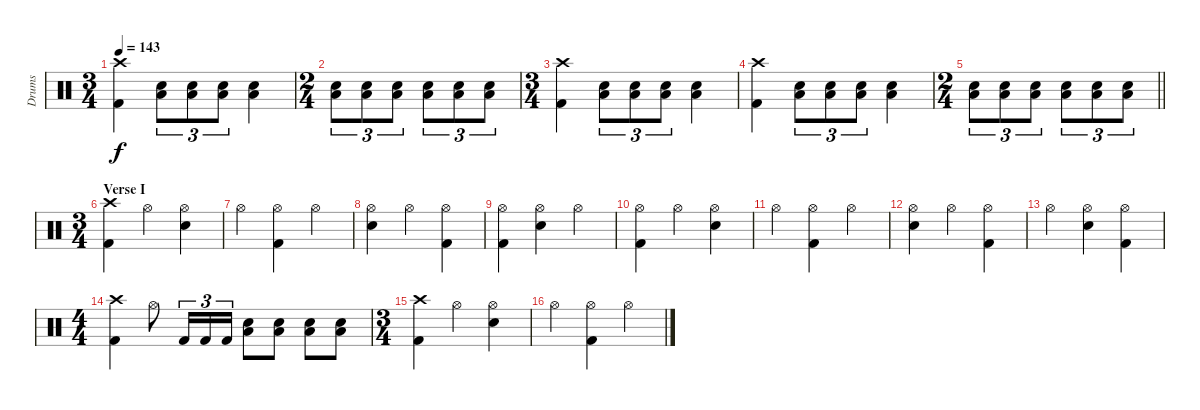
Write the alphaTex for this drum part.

\track ("Drums" "Drums") {instrument percussion}
\staff {score}
\articulation defaults
\ts (3 4)
\tempo 143
\clef neutral
\ks c
("Crash high (hit)" "Kick (hit) 2").4{dy f} ("Electric Snare (hit)" "Low Floor Tom (hit)").8{tu (3 2)} ("Electric Snare (hit)" "Low Floor Tom (hit)").8{tu (3 2)} ("Electric Snare (hit)" "Low Floor Tom (hit)").8{tu (3 2)} ("Electric Snare (hit)" "Low Floor Tom (hit)").4 |
\ts (2 4)
("Electric Snare (hit)" "Low Floor Tom (hit)").8{tu (3 2)} ("Electric Snare (hit)" "Low Floor Tom (hit)").8{tu (3 2)} ("Electric Snare (hit)" "Low Floor Tom (hit)").8{tu (3 2)} ("Electric Snare (hit)" "Low Floor Tom (hit)").8{tu (3 2)} ("Electric Snare (hit)" "Low Floor Tom (hit)").8{tu (3 2)} ("Electric Snare (hit)" "Low Floor Tom (hit)").8{tu (3 2)} |
\ts (3 4)
("Crash high (hit)" "Kick (hit) 2").4 ("Electric Snare (hit)" "Low Floor Tom (hit)").8{tu (3 2)} ("Electric Snare (hit)" "Low Floor Tom (hit)").8{tu (3 2)} ("Electric Snare (hit)" "Low Floor Tom (hit)").8{tu (3 2)} ("Electric Snare (hit)" "Low Floor Tom (hit)").4 |
("Crash high (hit)" "Kick (hit) 2").4 ("Electric Snare (hit)" "Low Floor Tom (hit)").8{tu (3 2)} ("Electric Snare (hit)" "Low Floor Tom (hit)").8{tu (3 2)} ("Electric Snare (hit)" "Low Floor Tom (hit)").8{tu (3 2)} ("Electric Snare (hit)" "Low Floor Tom (hit)").4 |
\ts (2 4)
\barLineRight lightlight
("Electric Snare (hit)" "Low Floor Tom (hit)").8{tu (3 2)} ("Electric Snare (hit)" "Low Floor Tom (hit)").8{tu (3 2)} ("Electric Snare (hit)" "Low Floor Tom (hit)").8{tu (3 2)} ("Electric Snare (hit)" "Low Floor Tom (hit)").8{tu (3 2)} ("Electric Snare (hit)" "Low Floor Tom (hit)").8{tu (3 2)} ("Electric Snare (hit)" "Low Floor Tom (hit)").8{tu (3 2)} |
\ts (3 4)
\section ("" "Verse I")
("Crash high (hit)" "Kick (hit) 2").4 "Hi-Hat (open)".4 ("Hi-Hat (open)" "Electric Snare (hit)").4 |
"Hi-Hat (open)".4 ("Hi-Hat (open)" "Kick (hit) 2").4 "Hi-Hat (open)".4 |
("Hi-Hat (open)" "Electric Snare (hit)").4 "Hi-Hat (open)".4 ("Hi-Hat (open)" "Kick (hit) 2").4 |
("Hi-Hat (open)" "Kick (hit) 2").4 ("Hi-Hat (open)" "Electric Snare (hit)").4 "Hi-Hat (open)".4 |
("Hi-Hat (open)" "Kick (hit) 2").4 "Hi-Hat (open)".4 ("Hi-Hat (open)" "Electric Snare (hit)").4 |
"Hi-Hat (open)".4 ("Hi-Hat (open)" "Kick (hit) 2").4 "Hi-Hat (open)".4 |
("Hi-Hat (open)" "Electric Snare (hit)").4 "Hi-Hat (open)".4 ("Hi-Hat (open)" "Kick (hit) 2").4 |
"Hi-Hat (open)".4 ("Hi-Hat (open)" "Electric Snare (hit)").4 ("Hi-Hat (open)" "Kick (hit) 2").4 |
\ts (4 4)
("Crash high (hit)" "Kick (hit) 2").4 "Hi-Hat (open)".8 "Kick (hit) 2".16{tu (3 2)} "Kick (hit) 2".16{tu (3 2)} "Kick (hit) 2".16{tu (3 2)} ("Electric Snare (hit)" "Low Floor Tom (hit)").8 ("Electric Snare (hit)" "Low Floor Tom (hit)").8 ("Electric Snare (hit)" "Low Floor Tom (hit)").8 ("Electric Snare (hit)" "Low Floor Tom (hit)").8 |
\ts (3 4)
("Crash high (hit)" "Kick (hit) 2").4 "Hi-Hat (open)".4 ("Hi-Hat (open)" "Electric Snare (hit)").4 |
"Hi-Hat (open)".4 ("Hi-Hat (open)" "Kick (hit) 2").4 "Hi-Hat (open)".4
